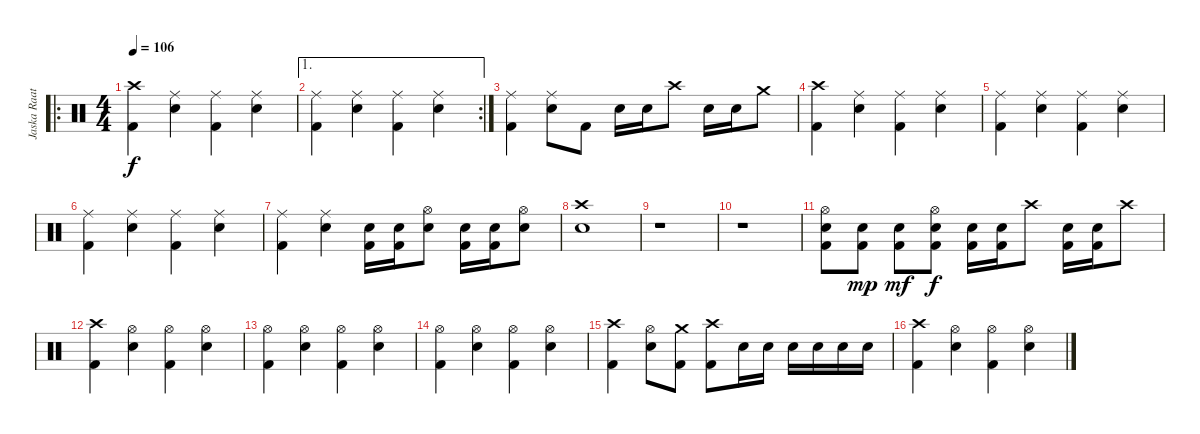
\track ("Jaska Raatikainen" "Jaska Raat") {instrument percussion}
\staff {score}
\articulation defaults
\ro
\ts (4 4)
\tempo 106
\clef neutral
\ks c
("Kick (hit) 2" "Crash high (hit)").4{dy f} ("Ride (middle)" "Snare (hit) 2").4 ("Kick (hit) 2" "Ride (middle)").4 ("Ride (middle)" "Snare (hit) 2").4 |
\ae 1
\rc 2
("Kick (hit) 2" "Ride (middle)").4 ("Ride (middle)" "Snare (hit) 2").4 ("Kick (hit) 2" "Ride (middle)").4 ("Ride (middle)" "Snare (hit) 2").4 |
("Kick (hit) 2" "Ride (middle)").4 ("Ride (middle)" "Snare (hit) 2").8 "Kick (hit) 2".8 "Snare (hit) 2".16 "Snare (hit) 2".16 "Crash high (hit)".8 "Snare (hit) 2".16 "Snare (hit) 2".16 "Crash medium (hit)".8 |
("Kick (hit) 2" "Crash high (hit)").4 ("Ride (middle)" "Snare (hit) 2").4 ("Kick (hit) 2" "Ride (middle)").4 ("Ride (middle)" "Snare (hit) 2").4 |
("Kick (hit) 2" "Ride (middle)").4 ("Ride (middle)" "Snare (hit) 2").4 ("Kick (hit) 2" "Ride (middle)").4 ("Ride (middle)" "Snare (hit) 2").4 |
("Kick (hit) 2" "Ride (middle)").4 ("Ride (middle)" "Snare (hit) 2").4 ("Kick (hit) 2" "Ride (middle)").4 ("Ride (middle)" "Snare (hit) 2").4 |
("Kick (hit) 2" "Ride (middle)").4 ("Ride (middle)" "Snare (hit) 2").4 ("Kick (hit) 2" "Snare (hit) 2").16 ("Kick (hit) 2" "Snare (hit) 2").16 ("Hi-Hat (open)" "Snare (hit) 2").8 ("Kick (hit) 2" "Snare (hit) 2").16 ("Kick (hit) 2" "Snare (hit) 2").16 ("Hi-Hat (open)" "Snare (hit) 2").8 |
("Crash high (hit)" "Snare (hit) 2").1 |
r.1 |
r.1 |
("Kick (hit) 2" "Hi-Hat (open)" "Snare (hit) 2").8 ("Kick (hit) 2" "Snare (hit) 2").8{dy mp} ("Kick (hit) 2" "Snare (hit) 2").8{dy mf} ("Kick (hit) 2" "Hi-Hat (open)" "Snare (hit) 2").8{dy f} ("Kick (hit) 2" "Snare (hit) 2").16 ("Kick (hit) 2" "Snare (hit) 2").16 "Crash high (hit)".8 ("Kick (hit) 2" "Snare (hit) 2").16 ("Kick (hit) 2" "Snare (hit) 2").16 "Crash high (hit)".8 |
("Kick (hit) 2" "Crash high (hit)").4 ("Hi-Hat (open)" "Snare (hit) 2").4 ("Kick (hit) 2" "Hi-Hat (open)").4 ("Hi-Hat (open)" "Snare (hit) 2").4 |
("Kick (hit) 2" "Hi-Hat (open)").4 ("Hi-Hat (open)" "Snare (hit) 2").4 ("Kick (hit) 2" "Hi-Hat (open)").4 ("Hi-Hat (open)" "Snare (hit) 2").4 |
("Kick (hit) 2" "Hi-Hat (open)").4 ("Hi-Hat (open)" "Snare (hit) 2").4 ("Kick (hit) 2" "Hi-Hat (open)").4 ("Hi-Hat (open)" "Snare (hit) 2").4 |
("Kick (hit) 2" "Crash high (hit)").4 ("Hi-Hat (open)" "Snare (hit) 2").8 ("Kick (hit) 2" "Crash medium (hit)").8 ("Kick (hit) 2" "Crash high (hit)").8 "Snare (hit) 2".16 "Snare (hit) 2".16 "Snare (hit) 2".16 "Snare (hit) 2".16 "Snare (hit) 2".16 "Snare (hit) 2".16 |
("Kick (hit) 2" "Crash high (hit)").4 ("Hi-Hat (open)" "Snare (hit) 2").4 ("Kick (hit) 2" "Hi-Hat (open)").4 ("Hi-Hat (open)" "Snare (hit) 2").4
